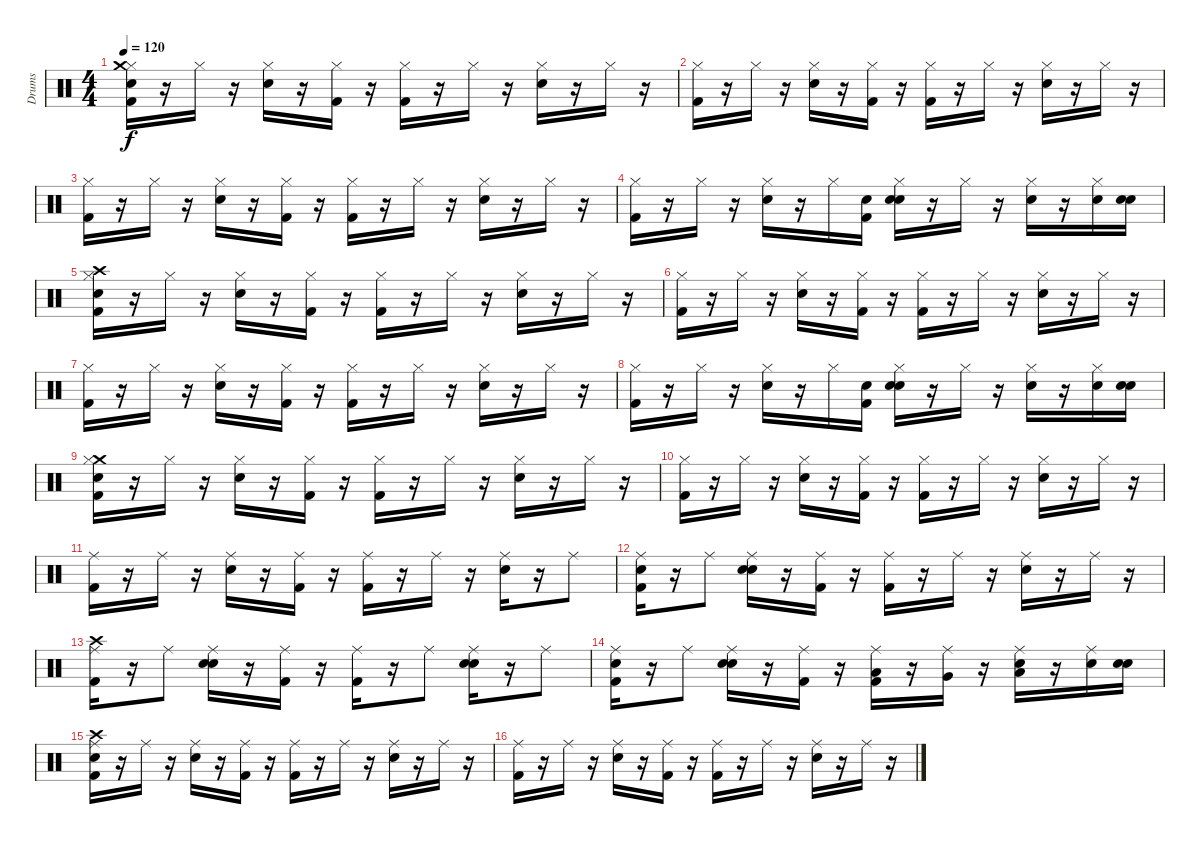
\track ("Drums" "Drums") {instrument percussion}
\staff {score}
\articulation defaults
\ts (4 4)
\tempo 120
\clef neutral
\ks c
("Snare (hit)" "Kick (hit) 2" "Hi-Hat (closed)" "Crash medium (hit)").16{dy f} r.16 "Hi-Hat (closed)".16 r.16 ("Hi-Hat (closed)" "Snare (hit) 2").16 r.16 ("Hi-Hat (closed)" "Kick (hit) 2").16 r.16 ("Hi-Hat (closed)" "Kick (hit) 2").16 r.16 "Hi-Hat (closed)".16 r.16 ("Snare (hit) 2" "Hi-Hat (closed)").16 r.16 "Hi-Hat (closed)".16 r.16 |
("Kick (hit) 2" "Hi-Hat (closed)").16 r.16 "Hi-Hat (closed)".16 r.16 ("Hi-Hat (closed)" "Snare (hit) 2").16 r.16 ("Hi-Hat (closed)" "Kick (hit) 2").16 r.16 ("Kick (hit) 2" "Hi-Hat (closed)").16 r.16 "Hi-Hat (closed)".16 r.16 ("Snare (hit) 2" "Hi-Hat (closed)").16 r.16 "Hi-Hat (closed)".16 r.16 |
("Kick (hit) 2" "Hi-Hat (closed)").16 r.16 "Hi-Hat (closed)".16 r.16 ("Snare (hit) 2" "Hi-Hat (closed)").16 r.16 ("Hi-Hat (closed)" "Kick (hit) 2").16 r.16 ("Hi-Hat (closed)" "Kick (hit) 2").16 r.16 "Hi-Hat (closed)".16 r.16 ("Hi-Hat (closed)" "Snare (hit) 2").16 r.16 "Hi-Hat (closed)".16 r.16 |
("Hi-Hat (closed)" "Kick (hit) 2").16 r.16 "Hi-Hat (closed)".16 r.16 ("Snare (hit) 2" "Hi-Hat (closed)").16 r.16 "Hi-Hat (closed)".16 ("Snare (hit)" "Kick (hit) 2").16 ("Snare (hit)" "Hi-Hat (closed)" "Snare (hit) 2").16 r.16 "Hi-Hat (closed)".16 r.16 ("Snare (hit) 2" "Hi-Hat (closed)").16 r.16 ("Snare (hit) 2" "Hi-Hat (closed)").16 ("Snare (hit)" "Snare (hit) 2").16 |
("Snare (hit)" "Crash high (hit)" "Kick (hit) 2" "Hi-Hat (closed)").16 r.16 "Hi-Hat (closed)".16 r.16 ("Snare (hit) 2" "Hi-Hat (closed)").16 r.16 ("Hi-Hat (closed)" "Kick (hit) 2").16 r.16 ("Hi-Hat (closed)" "Kick (hit) 2").16 r.16 "Hi-Hat (closed)".16 r.16 ("Snare (hit) 2" "Hi-Hat (closed)").16 r.16 "Hi-Hat (closed)".16 r.16 |
("Hi-Hat (closed)" "Kick (hit) 2").16 r.16 "Hi-Hat (closed)".16 r.16 ("Hi-Hat (closed)" "Snare (hit) 2").16 r.16 ("Hi-Hat (closed)" "Kick (hit) 2").16 r.16 ("Hi-Hat (closed)" "Kick (hit) 2").16 r.16 "Hi-Hat (closed)".16 r.16 ("Snare (hit) 2" "Hi-Hat (closed)").16 r.16 "Hi-Hat (closed)".16 r.16 |
("Hi-Hat (closed)" "Kick (hit) 2").16 r.16 "Hi-Hat (closed)".16 r.16 ("Hi-Hat (closed)" "Snare (hit) 2").16 r.16 ("Kick (hit) 2" "Hi-Hat (closed)").16 r.16 ("Kick (hit) 2" "Hi-Hat (closed)").16 r.16 "Hi-Hat (closed)".16 r.16 ("Snare (hit) 2" "Hi-Hat (closed)").16 r.16 "Hi-Hat (closed)".16 r.16 |
("Kick (hit) 2" "Hi-Hat (closed)").16 r.16 "Hi-Hat (closed)".16 r.16 ("Snare (hit) 2" "Hi-Hat (closed)").16 r.16 "Hi-Hat (closed)".16 ("Snare (hit)" "Kick (hit) 2").16 ("Snare (hit)" "Hi-Hat (closed)" "Snare (hit) 2").16 r.16 "Hi-Hat (closed)".16 r.16 ("Snare (hit) 2" "Hi-Hat (closed)").16 r.16 ("Snare (hit) 2" "Hi-Hat (closed)").16 ("Snare (hit)" "Snare (hit) 2").16 |
("Snare (hit)" "Crash medium (hit)" "Hi-Hat (closed)" "Kick (hit) 2").16 r.16 "Hi-Hat (closed)".16 r.16 ("Hi-Hat (closed)" "Snare (hit) 2").16 r.16 ("Hi-Hat (closed)" "Kick (hit) 2").16 r.16 ("Kick (hit) 2" "Hi-Hat (closed)").16 r.16 "Hi-Hat (closed)".16 r.16 ("Snare (hit) 2" "Hi-Hat (closed)").16 r.16 "Hi-Hat (closed)".16 r.16 |
("Kick (hit) 2" "Hi-Hat (closed)").16 r.16 "Hi-Hat (closed)".16 r.16 ("Hi-Hat (closed)" "Snare (hit) 2").16 r.16 ("Hi-Hat (closed)" "Kick (hit) 2").16 r.16 ("Hi-Hat (closed)" "Kick (hit) 2").16 r.16 "Hi-Hat (closed)".16 r.16 ("Snare (hit) 2" "Hi-Hat (closed)").16 r.16 "Hi-Hat (closed)".16 r.16 |
("Kick (hit) 2" "Ride (middle)").16 r.16 "Ride (middle)".16 r.16 ("Snare (hit) 2" "Ride (middle)").16 r.16 ("Ride (middle)" "Kick (hit) 2").16 r.16 ("Kick (hit) 2" "Ride (middle)").16 r.16 "Ride (middle)".16 r.16 ("Snare (hit) 2" "Ride (middle)").16 r.16 "Ride (middle)".8 |
("Snare (hit)" "Kick (hit) 2" "Ride (middle)").16 r.16 "Ride (middle)".8 ("Snare (hit)" "Snare (hit) 2" "Ride (middle)").16 r.16 ("Kick (hit) 2" "Ride (middle)").16 r.16 ("Ride (middle)" "Kick (hit) 2").16 r.16 "Ride (middle)".16 r.16 ("Snare (hit) 2" "Ride (middle)").16 r.16 "Ride (middle)".16 r.16 |
("Kick (hit) 2" "Ride (middle)" "Crash high (hit)").16 r.16 "Ride (middle)".8 ("Snare (hit)" "Ride (middle)" "Snare (hit) 2").16 r.16 ("Ride (middle)" "Kick (hit) 2").16 r.16 ("Kick (hit) 2" "Ride (middle)").16 r.16 "Ride (middle)".8 ("Snare (hit)" "Ride (middle)" "Snare (hit) 2").16 r.16 "Ride (middle)".8 |
("Snare (hit)" "Kick (hit) 2" "Ride (middle)").16 r.16 "Ride (middle)".8 ("Snare (hit)" "Ride (middle)" "Snare (hit) 2").16 r.16 ("Ride (middle)" "Kick (hit) 2").16 r.16 ("Kick (hit) 2" "Low Tom (hit)" "Ride (middle)").16 r.16 ("Very Low Tom (hit)" "Ride (middle)").16 r.16 ("Snare (hit) 2" "Ride (middle)" "Low Floor Tom (hit)").16 r.16 ("Ride (middle)" "Snare (hit) 2").16 ("Snare (hit)" "Snare (hit) 2").16 |
("Snare (hit)" "Ride (middle)" "Kick (hit) 2" "Crash high (hit)").16 r.16 "Ride (middle)".16 r.16 ("Snare (hit) 2" "Ride (middle)").16 r.16 ("Ride (middle)" "Kick (hit) 2").16 r.16 ("Ride (middle)" "Kick (hit) 2").16 r.16 "Ride (middle)".16 r.16 ("Ride (middle)" "Snare (hit) 2").16 r.16 "Ride (middle)".16 r.16 |
("Ride (middle)" "Kick (hit) 2").16 r.16 "Ride (middle)".16 r.16 ("Snare (hit) 2" "Ride (middle)").16 r.16 ("Ride (middle)" "Kick (hit) 2").16 r.16 ("Ride (middle)" "Kick (hit) 2").16 r.16 "Ride (middle)".16 r.16 ("Ride (middle)" "Snare (hit) 2").16 r.16 "Ride (middle)".16 r.16
